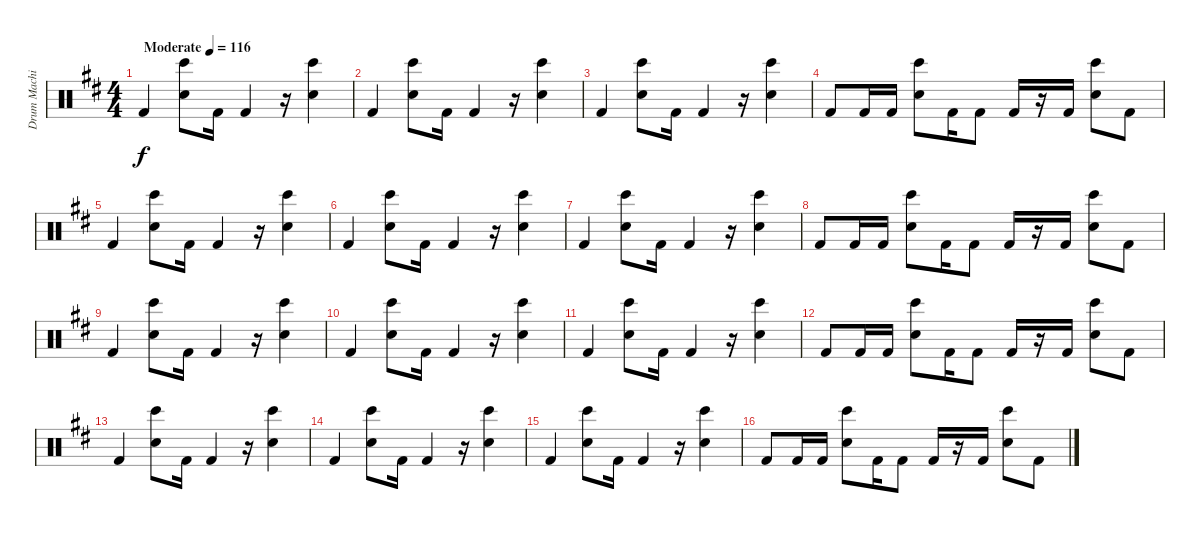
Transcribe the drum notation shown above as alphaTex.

\track ("Drum Machine" "Drum Machi") {instrument percussion}
\staff {score}
\articulation defaults
\ts (4 4)
\tempo (116 "Moderate")
\clef neutral
\ks bminor "Kick (hit) 2".4{dy f}
("Bongo High (hit)" "Electric Snare (hit)").8 "Kick (hit) 2".16 "Kick (hit) 2".4 r.16 ("Bongo High (hit)" "Electric Snare (hit)").4 |
"Kick (hit) 2".4 ("Bongo High (hit)" "Electric Snare (hit)").8 "Kick (hit) 2".16 "Kick (hit) 2".4 r.16 ("Bongo High (hit)" "Electric Snare (hit)").4 |
"Kick (hit) 2".4 ("Bongo High (hit)" "Electric Snare (hit)").8 "Kick (hit) 2".16 "Kick (hit) 2".4 r.16 ("Bongo High (hit)" "Electric Snare (hit)").4 |
"Kick (hit) 2".8 "Kick (hit) 2".16 "Kick (hit) 2".16 ("Bongo High (hit)" "Electric Snare (hit)").8 "Kick (hit) 2".16 "Kick (hit) 2".8 "Kick (hit) 2".16 r.16 "Kick (hit) 2".16 ("Bongo High (hit)" "Electric Snare (hit)").8 "Kick (hit) 2".8 |
"Kick (hit) 2".4 ("Bongo High (hit)" "Electric Snare (hit)").8 "Kick (hit) 2".16 "Kick (hit) 2".4 r.16 ("Bongo High (hit)" "Electric Snare (hit)").4 |
"Kick (hit) 2".4 ("Bongo High (hit)" "Electric Snare (hit)").8 "Kick (hit) 2".16 "Kick (hit) 2".4 r.16 ("Bongo High (hit)" "Electric Snare (hit)").4 |
"Kick (hit) 2".4 ("Bongo High (hit)" "Electric Snare (hit)").8 "Kick (hit) 2".16 "Kick (hit) 2".4 r.16 ("Bongo High (hit)" "Electric Snare (hit)").4 |
"Kick (hit) 2".8 "Kick (hit) 2".16 "Kick (hit) 2".16 ("Bongo High (hit)" "Electric Snare (hit)").8 "Kick (hit) 2".16 "Kick (hit) 2".8 "Kick (hit) 2".16 r.16 "Kick (hit) 2".16 ("Bongo High (hit)" "Electric Snare (hit)").8 "Kick (hit) 2".8 |
"Kick (hit) 2".4 ("Bongo High (hit)" "Electric Snare (hit)").8 "Kick (hit) 2".16 "Kick (hit) 2".4 r.16 ("Bongo High (hit)" "Electric Snare (hit)").4 |
"Kick (hit) 2".4 ("Bongo High (hit)" "Electric Snare (hit)").8 "Kick (hit) 2".16 "Kick (hit) 2".4 r.16 ("Bongo High (hit)" "Electric Snare (hit)").4 |
"Kick (hit) 2".4 ("Bongo High (hit)" "Electric Snare (hit)").8 "Kick (hit) 2".16 "Kick (hit) 2".4 r.16 ("Bongo High (hit)" "Electric Snare (hit)").4 |
"Kick (hit) 2".8 "Kick (hit) 2".16 "Kick (hit) 2".16 ("Bongo High (hit)" "Electric Snare (hit)").8 "Kick (hit) 2".16 "Kick (hit) 2".8 "Kick (hit) 2".16 r.16 "Kick (hit) 2".16 ("Bongo High (hit)" "Electric Snare (hit)").8 "Kick (hit) 2".8 |
"Kick (hit) 2".4 ("Bongo High (hit)" "Electric Snare (hit)").8 "Kick (hit) 2".16 "Kick (hit) 2".4 r.16 ("Bongo High (hit)" "Electric Snare (hit)").4 |
"Kick (hit) 2".4 ("Bongo High (hit)" "Electric Snare (hit)").8 "Kick (hit) 2".16 "Kick (hit) 2".4 r.16 ("Bongo High (hit)" "Electric Snare (hit)").4 |
"Kick (hit) 2".4 ("Bongo High (hit)" "Electric Snare (hit)").8 "Kick (hit) 2".16 "Kick (hit) 2".4 r.16 ("Bongo High (hit)" "Electric Snare (hit)").4 |
"Kick (hit) 2".8 "Kick (hit) 2".16 "Kick (hit) 2".16 ("Bongo High (hit)" "Electric Snare (hit)").8 "Kick (hit) 2".16 "Kick (hit) 2".8 "Kick (hit) 2".16 r.16 "Kick (hit) 2".16 ("Bongo High (hit)" "Electric Snare (hit)").8 "Kick (hit) 2".8
